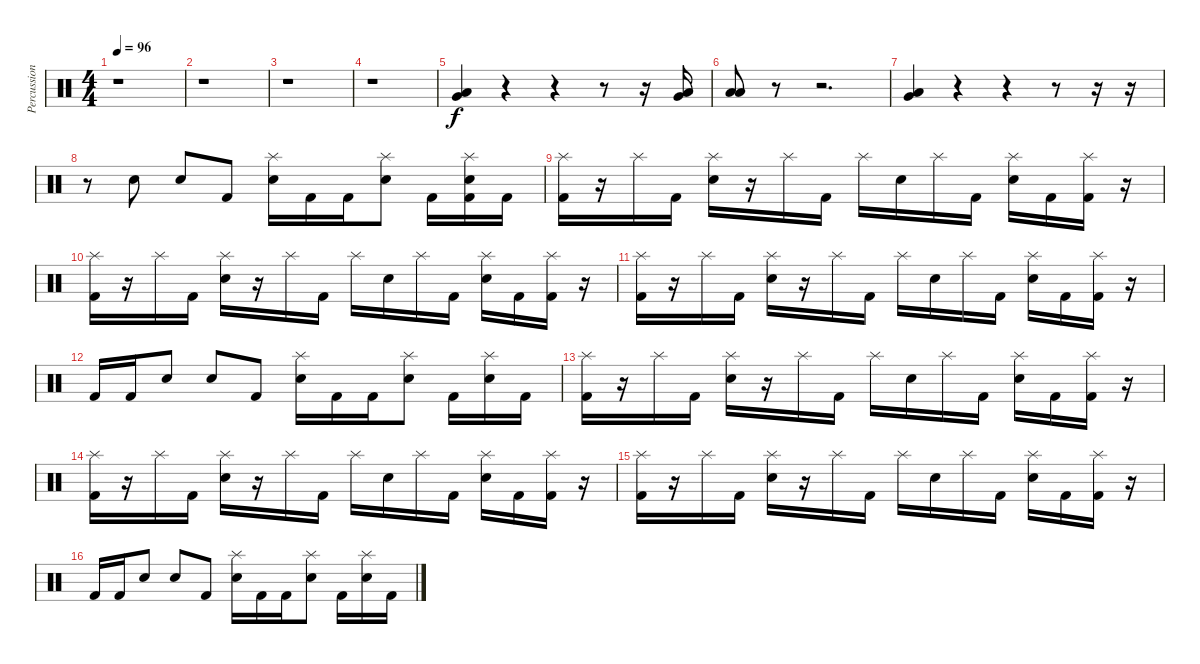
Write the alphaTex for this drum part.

\track ("Percussion" "Percussion") {instrument percussion}
\staff {score}
\articulation defaults
\ts (4 4)
\tempo 96
\clef neutral
\ks c
r.1{dy f} |
r.1 |
r.1 |
r.1 |
("Low Tom (hit)" "Very Low Tom (hit)").4 r.4 r.4 r.8 r.16 ("Low Tom (hit)" "Very Low Tom (hit)").16 |
("Low Tom (hit)" "Low Tom (hit)").8 r.8 r.2{d} |
("Low Tom (hit)" "Very Low Tom (hit)").4 r.4 r.4 r.8 r.16 r.16 |
r.8 "Snare (hit) 2".8 "Snare (hit) 2".8 "Kick (hit) 2".8 ("Splash (hit)" "Snare (hit) 2").16 "Kick (hit) 2".16 "Kick (hit) 2".16 ("Splash (hit)" "Snare (hit) 2").8 "Kick (hit) 2".16 ("Splash (hit)" "Snare (hit) 2" "Kick (hit) 2").16 "Kick (hit) 2".16 |
("Splash (hit)" "Kick (hit) 2").16 r.16 "Splash (hit)".16 "Kick (hit) 2".16 ("Splash (hit)" "Snare (hit) 2").16 r.16 "Splash (hit)".16 "Kick (hit) 2".16 "Splash (hit)".16 "Snare (hit) 2".16 "Splash (hit)".16 "Kick (hit) 2".16 ("Splash (hit)" "Snare (hit) 2").16 "Kick (hit) 2".16 ("Splash (hit)" "Kick (hit) 2").16 r.16 |
("Splash (hit)" "Kick (hit) 2").16 r.16 "Splash (hit)".16 "Kick (hit) 2".16 ("Splash (hit)" "Snare (hit) 2").16 r.16 "Splash (hit)".16 "Kick (hit) 2".16 "Splash (hit)".16 "Snare (hit) 2".16 "Splash (hit)".16 "Kick (hit) 2".16 ("Splash (hit)" "Snare (hit) 2").16 "Kick (hit) 2".16 ("Splash (hit)" "Kick (hit) 2").16 r.16 |
("Splash (hit)" "Kick (hit) 2").16 r.16 "Splash (hit)".16 "Kick (hit) 2".16 ("Splash (hit)" "Snare (hit) 2").16 r.16 "Splash (hit)".16 "Kick (hit) 2".16 "Splash (hit)".16 "Snare (hit) 2".16 "Splash (hit)".16 "Kick (hit) 2".16 ("Splash (hit)" "Snare (hit) 2").16 "Kick (hit) 2".16 ("Splash (hit)" "Kick (hit) 2").16 r.16 |
"Kick (hit) 2".16 "Kick (hit) 2".16 "Snare (hit) 2".8 "Snare (hit) 2".8 "Kick (hit) 2".8 ("Splash (hit)" "Snare (hit) 2").16 "Kick (hit) 2".16 "Kick (hit) 2".16 ("Splash (hit)" "Snare (hit) 2").8 "Kick (hit) 2".16 ("Splash (hit)" "Snare (hit) 2").16 "Kick (hit) 2".16 |
("Splash (hit)" "Kick (hit) 2").16 r.16 "Splash (hit)".16 "Kick (hit) 2".16 ("Splash (hit)" "Snare (hit) 2").16 r.16 "Splash (hit)".16 "Kick (hit) 2".16 "Splash (hit)".16 "Snare (hit) 2".16 "Splash (hit)".16 "Kick (hit) 2".16 ("Splash (hit)" "Snare (hit) 2").16 "Kick (hit) 2".16 ("Splash (hit)" "Kick (hit) 2").16 r.16 |
("Splash (hit)" "Kick (hit) 2").16 r.16 "Splash (hit)".16 "Kick (hit) 2".16 ("Splash (hit)" "Snare (hit) 2").16 r.16 "Splash (hit)".16 "Kick (hit) 2".16 "Splash (hit)".16 "Snare (hit) 2".16 "Splash (hit)".16 "Kick (hit) 2".16 ("Splash (hit)" "Snare (hit) 2").16 "Kick (hit) 2".16 ("Splash (hit)" "Kick (hit) 2").16 r.16 |
("Splash (hit)" "Kick (hit) 2").16 r.16 "Splash (hit)".16 "Kick (hit) 2".16 ("Splash (hit)" "Snare (hit) 2").16 r.16 "Splash (hit)".16 "Kick (hit) 2".16 "Splash (hit)".16 "Snare (hit) 2".16 "Splash (hit)".16 "Kick (hit) 2".16 ("Splash (hit)" "Snare (hit) 2").16 "Kick (hit) 2".16 ("Splash (hit)" "Kick (hit) 2").16 r.16 |
"Kick (hit) 2".16 "Kick (hit) 2".16 "Snare (hit) 2".8 "Snare (hit) 2".8 "Kick (hit) 2".8 ("Splash (hit)" "Snare (hit) 2").16 "Kick (hit) 2".16 "Kick (hit) 2".16 ("Splash (hit)" "Snare (hit) 2").8 "Kick (hit) 2".16 ("Splash (hit)" "Snare (hit) 2").16 "Kick (hit) 2".16
